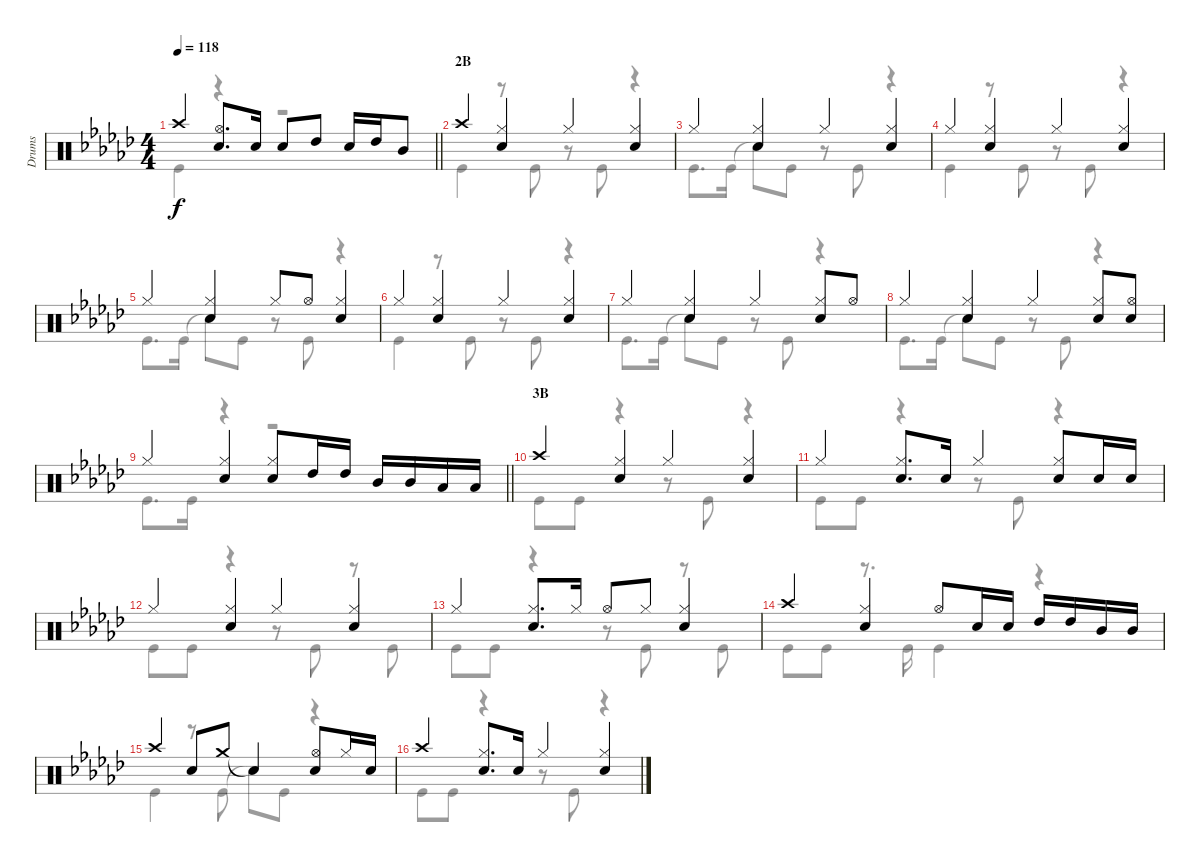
\track ("Drums" "Drums") {instrument percussion}
\staff {score}
\articulation defaults
\voice
\ts (4 4)
\tempo 118
\clef neutral
\barLineRight lightlight
\ks gb "Crash high (hit)".4{dy f}
("Hi-Hat (open)" "Snare (hit) 2").8{d} "Snare (hit) 2".16 "Snare (hit) 2".8 "High Tom (hit)".8 "Snare (hit) 2".16 "High Tom (hit)".16 "Mid Tom (hit)".8 |
\section ("" "2B")
"Crash high (hit)".4 ("Hi-Hat (closed)" "Snare (hit) 2").4 "Hi-Hat (closed)".4 ("Hi-Hat (closed)" "Snare (hit) 2").4 |
"Hi-Hat (closed)".4 ("Hi-Hat (closed)" "Snare (hit) 2").4 "Hi-Hat (closed)".4 ("Hi-Hat (closed)" "Snare (hit) 2").4 |
"Hi-Hat (closed)".4 ("Hi-Hat (closed)" "Snare (hit) 2").4 "Hi-Hat (closed)".4 ("Hi-Hat (closed)" "Snare (hit) 2").4 |
"Hi-Hat (closed)".4 ("Hi-Hat (closed)" "Snare (hit) 2").4 "Hi-Hat (closed)".8 "Hi-Hat (open)".8 ("Hi-Hat (closed)" "Snare (hit) 2").4 |
"Hi-Hat (closed)".4 ("Hi-Hat (closed)" "Snare (hit) 2").4 "Hi-Hat (closed)".4 ("Hi-Hat (closed)" "Snare (hit) 2").4 |
"Hi-Hat (closed)".4 ("Hi-Hat (closed)" "Snare (hit) 2").4 "Hi-Hat (closed)".4 ("Hi-Hat (closed)" "Snare (hit) 2").8 "Hi-Hat (open)".8 |
"Hi-Hat (closed)".4 ("Hi-Hat (closed)" "Snare (hit) 2").4 "Hi-Hat (closed)".4 ("Hi-Hat (closed)" "Snare (hit) 2").8 ("Hi-Hat (open)" "Snare (hit) 2").8 |
\barLineRight lightlight "Hi-Hat (closed)".4
("Hi-Hat (closed)" "Snare (hit) 2").4 ("Hi-Hat (closed)" "Snare (hit) 2").8 "High Tom (hit)".16 "High Tom (hit)".16 "Mid Tom (hit)".16 "Mid Tom (hit)".16 "Low Tom (hit)".16 "Low Tom (hit)".16 |
\section ("" "3B")
"Crash high (hit)".4 ("Hi-Hat (closed)" "Snare (hit) 2").4 "Hi-Hat (closed)".4 ("Hi-Hat (closed)" "Snare (hit) 2").4 |
"Hi-Hat (closed)".4 ("Hi-Hat (closed)" "Snare (hit) 2").8{d} "Snare (hit) 2".16 "Hi-Hat (closed)".4 ("Hi-Hat (closed)" "Snare (hit) 2").8 "Snare (hit) 2".16 "Snare (hit) 2".16 |
"Hi-Hat (closed)".4 ("Hi-Hat (closed)" "Snare (hit) 2").4 "Hi-Hat (closed)".4 ("Hi-Hat (closed)" "Snare (hit) 2").4 |
"Hi-Hat (closed)".4 ("Hi-Hat (closed)" "Snare (hit) 2").8{d} "Hi-Hat (closed)".16 "Hi-Hat (open)".8 "Hi-Hat (closed)".8 ("Hi-Hat (closed)" "Snare (hit) 2").4 |
"Crash high (hit)".4 ("Hi-Hat (closed)" "Snare (hit) 2").4 "Hi-Hat (open)".8 "Snare (hit) 2".16 "Snare (hit) 2".16 "High Tom (hit)".16 "High Tom (hit)".16 "Mid Tom (hit)".16 "Mid Tom (hit)".16 |
"Crash high (hit)".4 "Snare (hit) 2".8 "Crash medium (hit)".8 "Snare (hit)"{t}.4 ("Hi-Hat (open)" "Snare (hit) 2").8 "Hi-Hat (closed)".16 "Snare (hit) 2".16 |
"Crash high (hit)".4 ("Hi-Hat (closed)" "Snare (hit) 2").8{d} "Snare (hit) 2".16 "Hi-Hat (closed)".4 ("Hi-Hat (closed)" "Snare (hit) 2").4
\voice
\clef neutral
\ottava regular
\simile none
\barLineRight lightlight
\ks gb "Kick (hit)".4{dy f}
r.4 r.2 |
"Kick (hit)".4 r.8 "Kick (hit)".8 r.8 "Kick (hit)".8 r.4 |
"Kick (hit)".8{d} "Kick (hit)".16 "Snare (hit)"{t}.8 "Kick (hit)".8 r.8 "Kick (hit)".8 r.4 |
"Kick (hit)".4 r.8 "Kick (hit)".8 r.8 "Kick (hit)".8 r.4 |
"Kick (hit)".8{d} "Kick (hit)".16 "Snare (hit)"{t}.8 "Kick (hit)".8 r.8 "Kick (hit)".8 r.4 |
"Kick (hit)".4 r.8 "Kick (hit)".8 r.8 "Kick (hit)".8 r.4 |
"Kick (hit)".8{d} "Kick (hit)".16 "Snare (hit)"{t}.8 "Kick (hit)".8 r.8 "Kick (hit)".8 r.4 |
"Kick (hit)".8{d} "Kick (hit)".16 "Snare (hit)"{t}.8 "Kick (hit)".8 r.8 "Kick (hit)".8 r.4 |
\barLineRight lightlight "Kick (hit)".8{d} "Kick (hit)".16
r.4 r.2 |
"Kick (hit)".8 "Kick (hit)".8 r.4 r.8 "Kick (hit)".8 r.4 |
"Kick (hit)".8 "Kick (hit)".8 r.4 r.8 "Kick (hit)".8 r.4 |
"Kick (hit)".8 "Kick (hit)".8 r.4 r.8 "Kick (hit)".8 r.8 "Kick (hit)".8 |
"Kick (hit)".8 "Kick (hit)".8 r.4 r.8 "Kick (hit)".8 r.8 "Kick (hit)".8 |
"Kick (hit)".8 "Kick (hit)".8 r.8{d} "Kick (hit)".16 "Kick (hit)".4 r.4 |
"Kick (hit)".4 r.8 "Kick (hit)".8 "Snare (hit)"{t}.8 "Kick (hit)".8 r.4 |
"Kick (hit)".8 "Kick (hit)".8 r.4 r.8 "Kick (hit)".8 r.4
